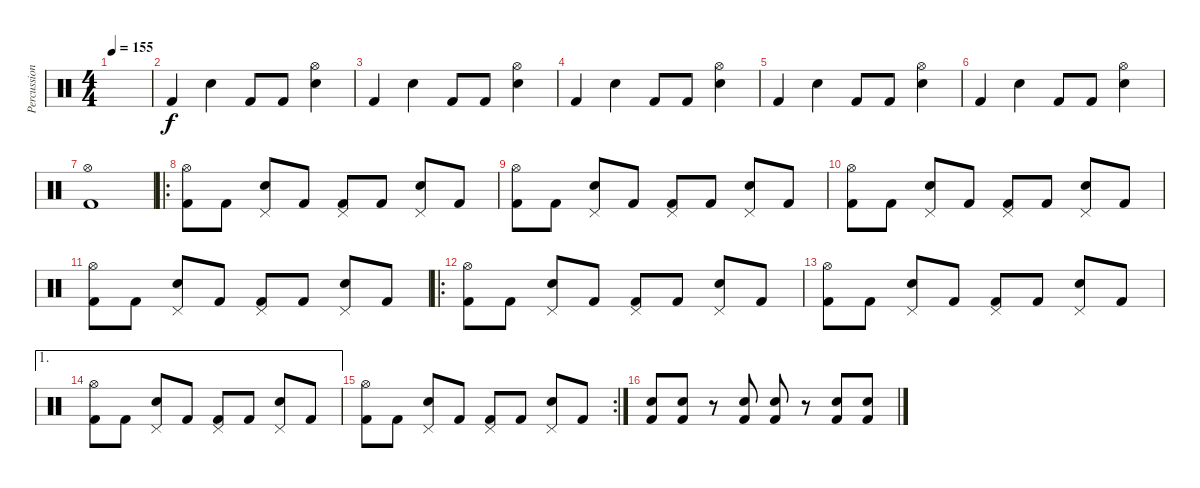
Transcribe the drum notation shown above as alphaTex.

\track ("Percussion" "Percussion") {instrument percussion}
\staff {score}
\articulation defaults
\ts (4 4)
\tempo 155
\clef neutral
\ks c
|
"Kick (hit) 2".4 "Electric Snare (hit)".4 "Kick (hit) 2".8 "Kick (hit) 2".8 ("Hi-Hat (open)" "Electric Snare (hit)").4 |
"Kick (hit) 2".4 "Electric Snare (hit)".4 "Kick (hit) 2".8 "Kick (hit) 2".8 ("Hi-Hat (open)" "Electric Snare (hit)").4 |
"Kick (hit) 2".4 "Electric Snare (hit)".4 "Kick (hit) 2".8 "Kick (hit) 2".8 ("Hi-Hat (open)" "Electric Snare (hit)").4 |
"Kick (hit) 2".4 "Electric Snare (hit)".4 "Kick (hit) 2".8 "Kick (hit) 2".8 ("Hi-Hat (open)" "Electric Snare (hit)").4 |
"Kick (hit) 2".4 "Electric Snare (hit)".4 "Kick (hit) 2".8 "Kick (hit) 2".8 ("Hi-Hat (open)" "Electric Snare (hit)").4 |
("Hi-Hat (open)" "Kick (hit) 2").1 |
\ro
("Hi-Hat (open)" "Kick (hit) 2").8 "Kick (hit) 2".8 ("Pedal Hi-Hat (hit)" "Electric Snare (hit)").8 "Kick (hit) 2".8 ("Pedal Hi-Hat (hit)" "Kick (hit) 2").8 "Kick (hit) 2".8 ("Pedal Hi-Hat (hit)" "Electric Snare (hit)").8 "Kick (hit) 2".8 |
("Hi-Hat (open)" "Kick (hit) 2").8 "Kick (hit) 2".8 ("Pedal Hi-Hat (hit)" "Electric Snare (hit)").8 "Kick (hit) 2".8 ("Pedal Hi-Hat (hit)" "Kick (hit) 2").8 "Kick (hit) 2".8 ("Pedal Hi-Hat (hit)" "Electric Snare (hit)").8 "Kick (hit) 2".8 |
("Hi-Hat (open)" "Kick (hit) 2").8 "Kick (hit) 2".8 ("Pedal Hi-Hat (hit)" "Electric Snare (hit)").8 "Kick (hit) 2".8 ("Pedal Hi-Hat (hit)" "Kick (hit) 2").8 "Kick (hit) 2".8 ("Pedal Hi-Hat (hit)" "Electric Snare (hit)").8 "Kick (hit) 2".8 |
("Hi-Hat (open)" "Kick (hit) 2").8 "Kick (hit) 2".8 ("Pedal Hi-Hat (hit)" "Electric Snare (hit)").8 "Kick (hit) 2".8 ("Pedal Hi-Hat (hit)" "Kick (hit) 2").8 "Kick (hit) 2".8 ("Pedal Hi-Hat (hit)" "Electric Snare (hit)").8 "Kick (hit) 2".8 |
\ro
("Hi-Hat (open)" "Kick (hit) 2").8 "Kick (hit) 2".8 ("Pedal Hi-Hat (hit)" "Electric Snare (hit)").8 "Kick (hit) 2".8 ("Pedal Hi-Hat (hit)" "Kick (hit) 2").8 "Kick (hit) 2".8 ("Pedal Hi-Hat (hit)" "Electric Snare (hit)").8 "Kick (hit) 2".8 |
("Hi-Hat (open)" "Kick (hit) 2").8 "Kick (hit) 2".8 ("Pedal Hi-Hat (hit)" "Electric Snare (hit)").8 "Kick (hit) 2".8 ("Pedal Hi-Hat (hit)" "Kick (hit) 2").8 "Kick (hit) 2".8 ("Pedal Hi-Hat (hit)" "Electric Snare (hit)").8 "Kick (hit) 2".8 |
\ae 1
("Hi-Hat (open)" "Kick (hit) 2").8 "Kick (hit) 2".8 ("Pedal Hi-Hat (hit)" "Electric Snare (hit)").8 "Kick (hit) 2".8 ("Pedal Hi-Hat (hit)" "Kick (hit) 2").8 "Kick (hit) 2".8 ("Pedal Hi-Hat (hit)" "Electric Snare (hit)").8 "Kick (hit) 2".8 |
\rc 2
("Hi-Hat (open)" "Kick (hit) 2").8 "Kick (hit) 2".8 ("Pedal Hi-Hat (hit)" "Electric Snare (hit)").8 "Kick (hit) 2".8 ("Pedal Hi-Hat (hit)" "Kick (hit) 2").8 "Kick (hit) 2".8 ("Pedal Hi-Hat (hit)" "Electric Snare (hit)").8 "Kick (hit) 2".8 |
("Electric Snare (hit)" "Kick (hit) 2").8 ("Electric Snare (hit)" "Kick (hit) 2").8 r.8 ("Electric Snare (hit)" "Kick (hit) 2").8 ("Electric Snare (hit)" "Kick (hit) 2").8 r.8 ("Electric Snare (hit)" "Kick (hit) 2").8 ("Electric Snare (hit)" "Kick (hit) 2").8
